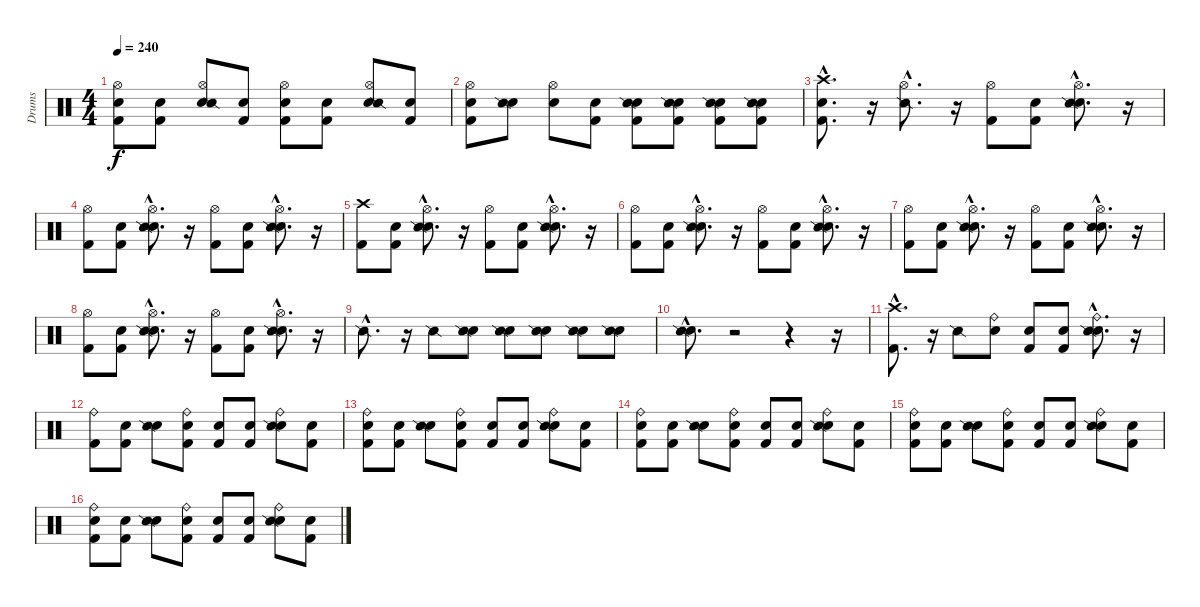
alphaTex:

\track ("Drums" "Drums") {instrument percussion}
\staff {score}
\articulation defaults
\ts (4 4)
\tempo 240
\clef neutral
\ks c
("Snare (hit)" "Kick (hit) 2" "Hi-Hat (open)").8{dy f} ("Snare (hit)" "Kick (hit) 2").8 ("Snare (hit)" "Hi-Hat (open)" "Snare (side stick) 2").8 ("Snare (hit)" "Kick (hit) 2").8 ("Snare (hit)" "Kick (hit) 2" "Hi-Hat (open)").8 ("Snare (hit)" "Kick (hit) 2").8 ("Snare (hit)" "Hi-Hat (open)" "Snare (side stick) 2").8 ("Snare (hit)" "Kick (hit) 2").8 |
("Snare (hit)" "Kick (hit) 2" "Hi-Hat (open)").8 ("Snare (hit)" "Snare (side stick) 2").8 ("Snare (hit)" "Hi-Hat (open)").8 ("Snare (hit)" "Kick (hit) 2").8 ("Snare (hit)" "Kick (hit) 2" "Snare (side stick) 2").8 ("Snare (hit)" "Kick (hit) 2" "Snare (side stick) 2").8 ("Snare (hit)" "Kick (hit) 2" "Snare (side stick) 2").8 ("Snare (hit)" "Kick (hit) 2" "Snare (side stick) 2").8 |
("Snare (hit)"{hac} "Kick (hit) 2"{hac} "Crash high (hit)"{hac}).8{d} r.16 ("Hi-Hat (open)"{hac} "Snare (side stick) 2"{hac}).8{d} r.16 ("Kick (hit) 2" "Hi-Hat (open)").8 ("Snare (hit)" "Kick (hit) 2").8 ("Snare (hit)"{hac} "Hi-Hat (open)"{hac} "Snare (side stick) 2"{hac}).8{d} r.16 |
("Kick (hit) 2" "Hi-Hat (open)").8 ("Snare (hit)" "Kick (hit) 2").8 ("Snare (hit)"{hac} "Hi-Hat (open)"{hac} "Snare (side stick) 2"{hac}).8{d} r.16 ("Kick (hit) 2" "Hi-Hat (open)").8 ("Snare (hit)" "Kick (hit) 2").8 ("Snare (hit)"{hac} "Hi-Hat (open)"{hac} "Snare (side stick) 2"{hac}).8{d} r.16 |
("Kick (hit) 2" "Crash high (hit)").8 ("Snare (hit)" "Kick (hit) 2").8 ("Snare (hit)"{hac} "Hi-Hat (open)"{hac} "Snare (side stick) 2"{hac}).8{d} r.16 ("Kick (hit) 2" "Hi-Hat (open)").8 ("Snare (hit)" "Kick (hit) 2").8 ("Snare (hit)"{hac} "Hi-Hat (open)"{hac} "Snare (side stick) 2"{hac}).8{d} r.16 |
("Kick (hit) 2" "Hi-Hat (open)").8 ("Snare (hit)" "Kick (hit) 2").8 ("Snare (hit)"{hac} "Hi-Hat (open)"{hac} "Snare (side stick) 2"{hac}).8{d} r.16 ("Kick (hit) 2" "Hi-Hat (open)").8 ("Snare (hit)" "Kick (hit) 2").8 ("Snare (hit)"{hac} "Hi-Hat (open)"{hac} "Snare (side stick) 2"{hac}).8{d} r.16 |
("Kick (hit) 2" "Hi-Hat (open)").8 ("Snare (hit)" "Kick (hit) 2").8 ("Snare (hit)"{hac} "Hi-Hat (open)"{hac} "Snare (side stick) 2"{hac}).8{d} r.16 ("Kick (hit) 2" "Hi-Hat (open)").8 ("Snare (hit)" "Kick (hit) 2").8 ("Snare (hit)"{hac} "Hi-Hat (open)"{hac} "Snare (side stick) 2"{hac}).8{d} r.16 |
("Kick (hit) 2" "Hi-Hat (open)").8 ("Snare (hit)" "Kick (hit) 2").8 ("Snare (hit)"{hac} "Hi-Hat (open)"{hac} "Snare (side stick) 2"{hac}).8{d} r.16 ("Kick (hit) 2" "Hi-Hat (open)").8 ("Snare (hit)" "Kick (hit) 2").8 ("Snare (hit)"{hac} "Hi-Hat (open)"{hac} "Snare (side stick) 2"{hac}).8{d} r.16 |
"Snare (side stick) 2"{hac}.8{d} r.16 "Snare (side stick) 2".8 ("Snare (hit)" "Snare (side stick) 2").8 ("Snare (hit)" "Snare (side stick) 2").8 ("Snare (hit)" "Snare (side stick) 2").8 ("Snare (hit)" "Snare (side stick) 2").8 ("Snare (hit)" "Snare (side stick) 2").8 |
("Snare (hit)"{hac} "Snare (side stick) 2"{hac}).8{d} r.2 r.4 r.16 |
("Kick (hit) 2"{hac} "Crash high (hit)"{hac}).8{d} r.16 "Snare (side stick) 2".8 ("Snare (hit)" "Ride (bell)").8 ("Snare (hit)" "Kick (hit) 2").8 ("Snare (hit)" "Kick (hit) 2").8 ("Snare (hit)"{hac} "Snare (side stick) 2"{hac} "Ride (bell)"{hac}).8{d} r.16 |
("Kick (hit) 2" "Ride (bell)").8 ("Snare (hit)" "Kick (hit) 2").8 ("Snare (hit)" "Snare (side stick) 2").8 ("Snare (hit)" "Kick (hit) 2" "Ride (bell)").8 ("Snare (hit)" "Kick (hit) 2").8 ("Snare (hit)" "Kick (hit) 2").8 ("Snare (hit)" "Ride (bell)" "Snare (side stick) 2").8 ("Snare (hit)" "Kick (hit) 2").8 |
("Snare (hit)" "Kick (hit) 2" "Ride (bell)").8 ("Snare (hit)" "Kick (hit) 2").8 ("Snare (hit)" "Snare (side stick) 2").8 ("Snare (hit)" "Kick (hit) 2" "Ride (bell)").8 ("Snare (hit)" "Kick (hit) 2").8 ("Snare (hit)" "Kick (hit) 2").8 ("Snare (hit)" "Ride (bell)" "Snare (side stick) 2").8 ("Snare (hit)" "Kick (hit) 2").8 |
("Snare (hit)" "Kick (hit) 2" "Ride (bell)").8 ("Snare (hit)" "Kick (hit) 2").8 ("Snare (hit)" "Snare (side stick) 2").8 ("Snare (hit)" "Kick (hit) 2" "Ride (bell)").8 ("Snare (hit)" "Kick (hit) 2").8 ("Snare (hit)" "Kick (hit) 2").8 ("Snare (hit)" "Ride (bell)" "Snare (side stick) 2").8 ("Snare (hit)" "Kick (hit) 2").8 |
("Snare (hit)" "Kick (hit) 2" "Ride (bell)").8 ("Snare (hit)" "Kick (hit) 2").8 ("Snare (hit)" "Snare (side stick) 2").8 ("Snare (hit)" "Kick (hit) 2" "Ride (bell)").8 ("Snare (hit)" "Kick (hit) 2").8 ("Snare (hit)" "Kick (hit) 2").8 ("Snare (hit)" "Ride (bell)" "Snare (side stick) 2").8 ("Snare (hit)" "Kick (hit) 2").8 |
("Snare (hit)" "Kick (hit) 2" "Ride (bell)").8 ("Snare (hit)" "Kick (hit) 2").8 ("Snare (hit)" "Snare (side stick) 2").8 ("Snare (hit)" "Kick (hit) 2" "Ride (bell)").8 ("Snare (hit)" "Kick (hit) 2").8 ("Snare (hit)" "Kick (hit) 2").8 ("Snare (hit)" "Ride (bell)" "Snare (side stick) 2").8 ("Snare (hit)" "Kick (hit) 2").8
